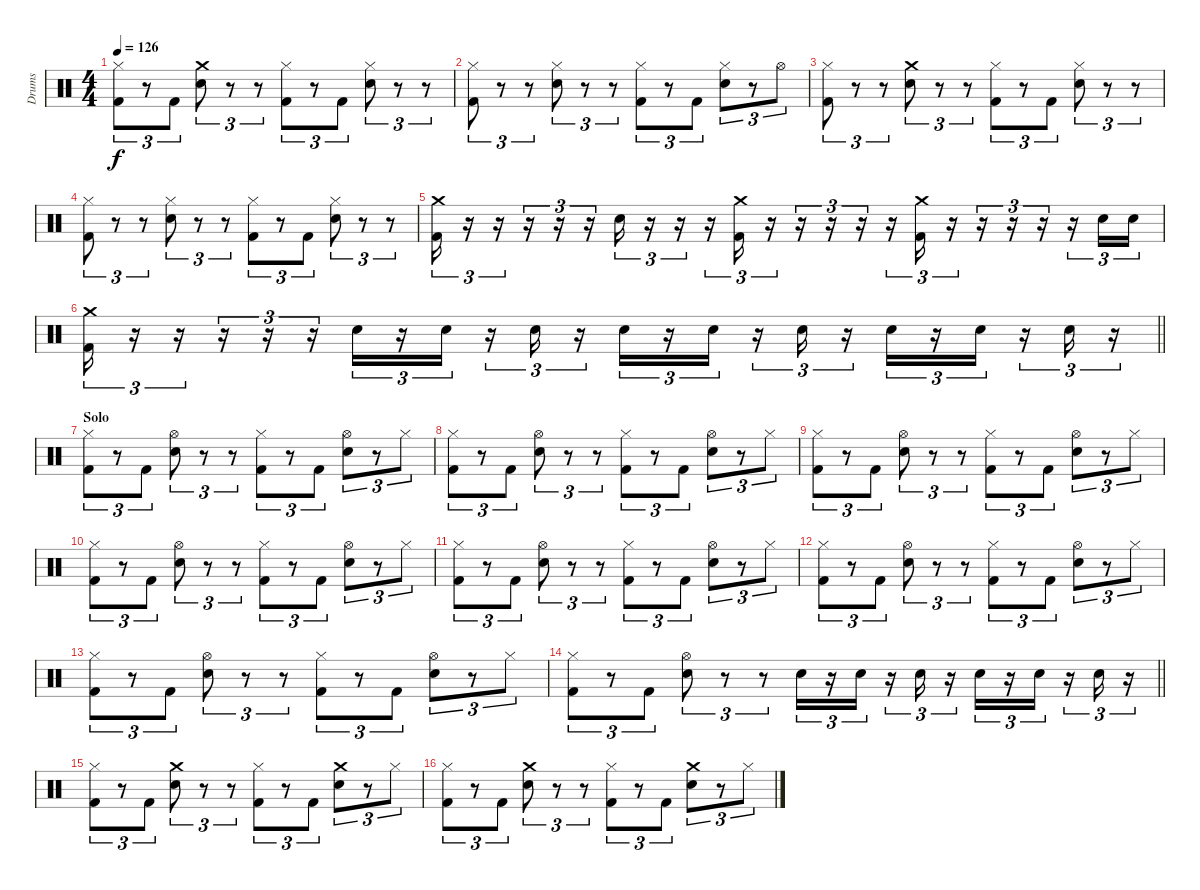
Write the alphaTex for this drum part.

\track ("Drums" "Drums") {instrument percussion}
\staff {score}
\articulation defaults
\ts (4 4)
\tempo 126
\clef neutral
\ks c
("Hi-Hat (closed)" "Kick (hit) 2").8{tu (3 2) dy f} r.8{tu (3 2)} "Kick (hit) 2".8{tu (3 2)} ("Crash medium (hit)" "Snare (hit) 2").8{tu (3 2)} r.8{tu (3 2)} r.8{tu (3 2)} ("Hi-Hat (closed)" "Kick (hit) 2").8{tu (3 2)} r.8{tu (3 2)} "Kick (hit) 2".8{tu (3 2)} ("Hi-Hat (closed)" "Snare (hit) 2").8{tu (3 2)} r.8{tu (3 2)} r.8{tu (3 2)} |
("Hi-Hat (closed)" "Kick (hit) 2").8{tu (3 2)} r.8{tu (3 2)} r.8{tu (3 2)} ("Hi-Hat (closed)" "Snare (hit) 2").8{tu (3 2)} r.8{tu (3 2)} r.8{tu (3 2)} ("Hi-Hat (closed)" "Kick (hit) 2").8{tu (3 2)} r.8{tu (3 2)} "Kick (hit) 2".8{tu (3 2)} ("Hi-Hat (closed)" "Snare (hit) 2").8{tu (3 2)} r.8{tu (3 2)} "Hi-Hat (open)".8{tu (3 2)} |
("Hi-Hat (closed)" "Kick (hit) 2").8{tu (3 2)} r.8{tu (3 2)} r.8{tu (3 2)} ("Crash medium (hit)" "Snare (hit) 2").8{tu (3 2)} r.8{tu (3 2)} r.8{tu (3 2)} ("Hi-Hat (closed)" "Kick (hit) 2").8{tu (3 2)} r.8{tu (3 2)} "Kick (hit) 2".8{tu (3 2)} ("Hi-Hat (closed)" "Snare (hit) 2").8{tu (3 2)} r.8{tu (3 2)} r.8{tu (3 2)} |
("Hi-Hat (closed)" "Kick (hit) 2").8{tu (3 2)} r.8{tu (3 2)} r.8{tu (3 2)} ("Hi-Hat (closed)" "Snare (hit) 2").8{tu (3 2)} r.8{tu (3 2)} r.8{tu (3 2)} ("Hi-Hat (closed)" "Kick (hit) 2").8{tu (3 2)} r.8{tu (3 2)} "Kick (hit) 2".8{tu (3 2)} ("Hi-Hat (closed)" "Snare (hit) 2").8{tu (3 2)} r.8{tu (3 2)} r.8{tu (3 2)} |
("Crash medium (hit)" "Kick (hit) 2").16{tu (3 2)} r.16{tu (3 2)} r.16{tu (3 2)} r.16{tu (3 2)} r.16{tu (3 2)} r.16{tu (3 2)} "Snare (hit) 2".16{tu (3 2)} r.16{tu (3 2)} r.16{tu (3 2)} r.16{tu (3 2)} ("Crash medium (hit)" "Kick (hit) 2").16{tu (3 2)} r.16{tu (3 2)} r.16{tu (3 2)} r.16{tu (3 2)} r.16{tu (3 2)} r.16{tu (3 2)} ("Crash medium (hit)" "Kick (hit) 2").16{tu (3 2)} r.16{tu (3 2)} r.16{tu (3 2)} r.16{tu (3 2)} r.16{tu (3 2)} r.16{tu (3 2)} "Snare (hit) 2".16{tu (3 2)} "Snare (hit) 2".16{tu (3 2)} |
\barLineRight lightlight
("Crash medium (hit)" "Kick (hit) 2").16{tu (3 2)} r.16{tu (3 2)} r.16{tu (3 2)} r.16{tu (3 2)} r.16{tu (3 2)} r.16{tu (3 2)} "Snare (hit) 2".16{tu (3 2)} r.16{tu (3 2)} "Snare (hit) 2".16{tu (3 2)} r.16{tu (3 2)} "Snare (hit) 2".16{tu (3 2)} r.16{tu (3 2)} "Snare (hit) 2".16{tu (3 2)} r.16{tu (3 2)} "Snare (hit) 2".16{tu (3 2)} r.16{tu (3 2)} "Snare (hit) 2".16{tu (3 2)} r.16{tu (3 2)} "Snare (hit) 2".16{tu (3 2)} r.16{tu (3 2)} "Snare (hit) 2".16{tu (3 2)} r.16{tu (3 2)} "Snare (hit) 2".16{tu (3 2)} r.16{tu (3 2)} |
\section ("" "Solo")
("Hi-Hat (closed)" "Kick (hit) 2").8{tu (3 2)} r.8{tu (3 2)} "Kick (hit) 2".8{tu (3 2)} ("Hi-Hat (open)" "Snare (hit) 2").8{tu (3 2)} r.8{tu (3 2)} r.8{tu (3 2)} ("Hi-Hat (closed)" "Kick (hit) 2").8{tu (3 2)} r.8{tu (3 2)} "Kick (hit) 2".8{tu (3 2)} ("Hi-Hat (open)" "Snare (hit) 2").8{tu (3 2)} r.8{tu (3 2)} "Hi-Hat (closed)".8{tu (3 2)} |
("Hi-Hat (closed)" "Kick (hit) 2").8{tu (3 2)} r.8{tu (3 2)} "Kick (hit) 2".8{tu (3 2)} ("Hi-Hat (open)" "Snare (hit) 2").8{tu (3 2)} r.8{tu (3 2)} r.8{tu (3 2)} ("Hi-Hat (closed)" "Kick (hit) 2").8{tu (3 2)} r.8{tu (3 2)} "Kick (hit) 2".8{tu (3 2)} ("Hi-Hat (open)" "Snare (hit) 2").8{tu (3 2)} r.8{tu (3 2)} "Hi-Hat (closed)".8{tu (3 2)} |
("Hi-Hat (closed)" "Kick (hit) 2").8{tu (3 2)} r.8{tu (3 2)} "Kick (hit) 2".8{tu (3 2)} ("Hi-Hat (open)" "Snare (hit) 2").8{tu (3 2)} r.8{tu (3 2)} r.8{tu (3 2)} ("Hi-Hat (closed)" "Kick (hit) 2").8{tu (3 2)} r.8{tu (3 2)} "Kick (hit) 2".8{tu (3 2)} ("Hi-Hat (open)" "Snare (hit) 2").8{tu (3 2)} r.8{tu (3 2)} "Hi-Hat (closed)".8{tu (3 2)} |
("Hi-Hat (closed)" "Kick (hit) 2").8{tu (3 2)} r.8{tu (3 2)} "Kick (hit) 2".8{tu (3 2)} ("Hi-Hat (open)" "Snare (hit) 2").8{tu (3 2)} r.8{tu (3 2)} r.8{tu (3 2)} ("Hi-Hat (closed)" "Kick (hit) 2").8{tu (3 2)} r.8{tu (3 2)} "Kick (hit) 2".8{tu (3 2)} ("Hi-Hat (open)" "Snare (hit) 2").8{tu (3 2)} r.8{tu (3 2)} "Hi-Hat (closed)".8{tu (3 2)} |
("Hi-Hat (closed)" "Kick (hit) 2").8{tu (3 2)} r.8{tu (3 2)} "Kick (hit) 2".8{tu (3 2)} ("Hi-Hat (open)" "Snare (hit) 2").8{tu (3 2)} r.8{tu (3 2)} r.8{tu (3 2)} ("Hi-Hat (closed)" "Kick (hit) 2").8{tu (3 2)} r.8{tu (3 2)} "Kick (hit) 2".8{tu (3 2)} ("Hi-Hat (open)" "Snare (hit) 2").8{tu (3 2)} r.8{tu (3 2)} "Hi-Hat (closed)".8{tu (3 2)} |
("Hi-Hat (closed)" "Kick (hit) 2").8{tu (3 2)} r.8{tu (3 2)} "Kick (hit) 2".8{tu (3 2)} ("Hi-Hat (open)" "Snare (hit) 2").8{tu (3 2)} r.8{tu (3 2)} r.8{tu (3 2)} ("Hi-Hat (closed)" "Kick (hit) 2").8{tu (3 2)} r.8{tu (3 2)} "Kick (hit) 2".8{tu (3 2)} ("Hi-Hat (open)" "Snare (hit) 2").8{tu (3 2)} r.8{tu (3 2)} "Hi-Hat (closed)".8{tu (3 2)} |
("Hi-Hat (closed)" "Kick (hit) 2").8{tu (3 2)} r.8{tu (3 2)} "Kick (hit) 2".8{tu (3 2)} ("Hi-Hat (open)" "Snare (hit) 2").8{tu (3 2)} r.8{tu (3 2)} r.8{tu (3 2)} ("Hi-Hat (closed)" "Kick (hit) 2").8{tu (3 2)} r.8{tu (3 2)} "Kick (hit) 2".8{tu (3 2)} ("Hi-Hat (open)" "Snare (hit) 2").8{tu (3 2)} r.8{tu (3 2)} "Hi-Hat (closed)".8{tu (3 2)} |
\barLineRight lightlight
("Hi-Hat (closed)" "Kick (hit) 2").8{tu (3 2)} r.8{tu (3 2)} "Kick (hit) 2".8{tu (3 2)} ("Hi-Hat (open)" "Snare (hit) 2").8{tu (3 2)} r.8{tu (3 2)} r.8{tu (3 2)} "Snare (hit) 2".16{tu (3 2)} r.16{tu (3 2)} "Snare (hit) 2".16{tu (3 2)} r.16{tu (3 2)} "Snare (hit) 2".16{tu (3 2)} r.16{tu (3 2)} "Snare (hit) 2".16{tu (3 2)} r.16{tu (3 2)} "Snare (hit) 2".16{tu (3 2)} r.16{tu (3 2)} "Snare (hit) 2".16{tu (3 2)} r.16{tu (3 2)} |
("Hi-Hat (closed)" "Kick (hit) 2").8{tu (3 2)} r.8{tu (3 2)} "Kick (hit) 2".8{tu (3 2)} ("Crash medium (hit)" "Snare (hit) 2").8{tu (3 2)} r.8{tu (3 2)} r.8{tu (3 2)} ("Hi-Hat (closed)" "Kick (hit) 2").8{tu (3 2)} r.8{tu (3 2)} "Kick (hit) 2".8{tu (3 2)} ("Crash medium (hit)" "Snare (hit) 2").8{tu (3 2)} r.8{tu (3 2)} "Hi-Hat (closed)".8{tu (3 2)} |
("Hi-Hat (closed)" "Kick (hit) 2").8{tu (3 2)} r.8{tu (3 2)} "Kick (hit) 2".8{tu (3 2)} ("Crash medium (hit)" "Snare (hit) 2").8{tu (3 2)} r.8{tu (3 2)} r.8{tu (3 2)} ("Hi-Hat (closed)" "Kick (hit) 2").8{tu (3 2)} r.8{tu (3 2)} "Kick (hit) 2".8{tu (3 2)} ("Crash medium (hit)" "Snare (hit) 2").8{tu (3 2)} r.8{tu (3 2)} "Hi-Hat (closed)".8{tu (3 2)}
